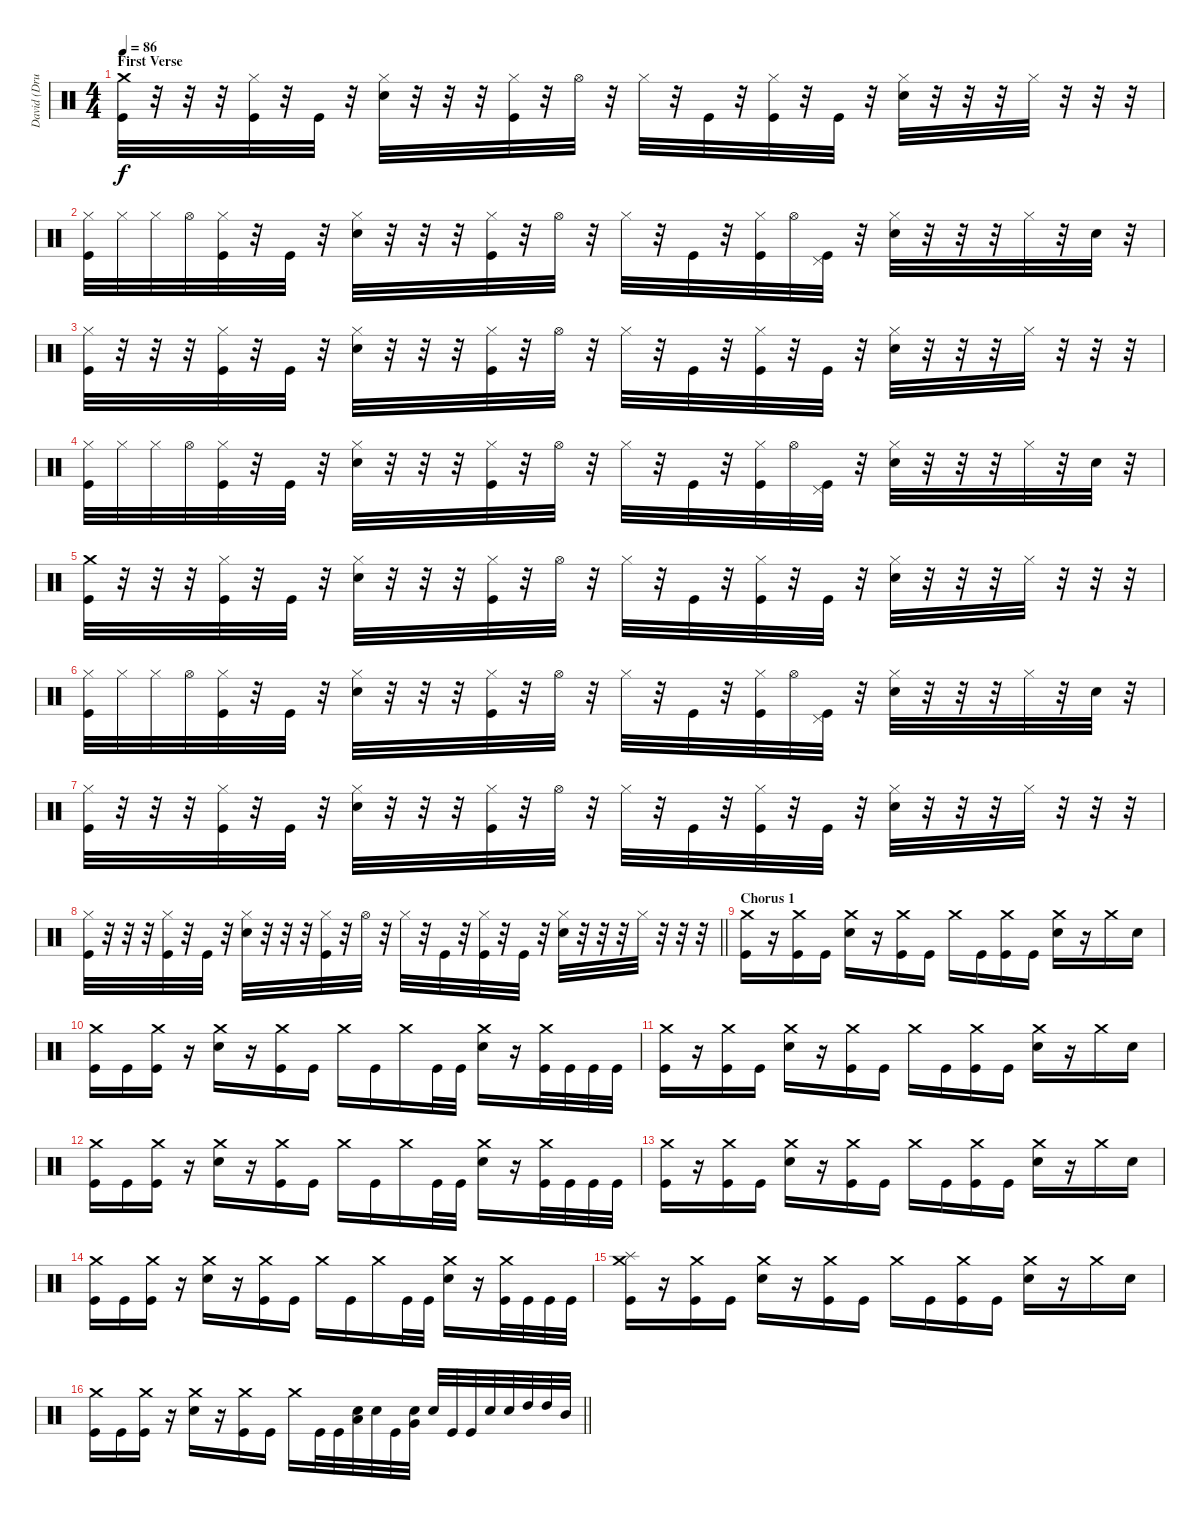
\track ("David (Drums)" "David (Dru") {instrument percussion}
\staff {score}
\articulation defaults
\ts (4 4)
\section ("" "First Verse")
\tempo 86
\clef neutral
\ks c
("Crash medium (hit)" "Kick (hit)").32{dy f} r.32 r.32 r.32 ("Hi-Hat (closed)" "Kick (hit)").32 r.32 "Kick (hit)".32 r.32 ("Hi-Hat (closed)" "Electric Snare (hit)").32 r.32 r.32 r.32 ("Hi-Hat (closed)" "Kick (hit)").32 r.32 "Hi-Hat (open)".32 r.32 "Hi-Hat (closed)".32 r.32 "Kick (hit)".32 r.32 ("Hi-Hat (closed)" "Kick (hit)").32 r.32 "Kick (hit)".32 r.32 ("Hi-Hat (closed)" "Electric Snare (hit)").32 r.32 r.32 r.32 "Hi-Hat (closed)".32 r.32 r.32 r.32 |
("Hi-Hat (closed)" "Kick (hit)").32 "Hi-Hat (closed)".32 "Hi-Hat (closed)".32 "Hi-Hat (open)".32 ("Hi-Hat (closed)" "Kick (hit)").32 r.32 "Kick (hit)".32 r.32 ("Hi-Hat (closed)" "Electric Snare (hit)").32 r.32 r.32 r.32 ("Hi-Hat (closed)" "Kick (hit)").32 r.32 "Hi-Hat (open)".32 r.32 "Hi-Hat (closed)".32 r.32 "Kick (hit)".32 r.32 ("Hi-Hat (closed)" "Kick (hit)").32 "Hi-Hat (open)".32 ("Pedal Hi-Hat (hit)" "Kick (hit)").32 r.32 ("Hi-Hat (closed)" "Electric Snare (hit)").32 r.32 r.32 r.32 "Hi-Hat (closed)".32 r.32 "Electric Snare (hit)".32 r.32 |
("Hi-Hat (closed)" "Kick (hit)").32 r.32 r.32 r.32 ("Hi-Hat (closed)" "Kick (hit)").32 r.32 "Kick (hit)".32 r.32 ("Hi-Hat (closed)" "Electric Snare (hit)").32 r.32 r.32 r.32 ("Hi-Hat (closed)" "Kick (hit)").32 r.32 "Hi-Hat (open)".32 r.32 "Hi-Hat (closed)".32 r.32 "Kick (hit)".32 r.32 ("Hi-Hat (closed)" "Kick (hit)").32 r.32 "Kick (hit)".32 r.32 ("Hi-Hat (closed)" "Electric Snare (hit)").32 r.32 r.32 r.32 "Hi-Hat (closed)".32 r.32 r.32 r.32 |
("Hi-Hat (closed)" "Kick (hit)").32 "Hi-Hat (closed)".32 "Hi-Hat (closed)".32 "Hi-Hat (open)".32 ("Hi-Hat (closed)" "Kick (hit)").32 r.32 "Kick (hit)".32 r.32 ("Hi-Hat (closed)" "Electric Snare (hit)").32 r.32 r.32 r.32 ("Hi-Hat (closed)" "Kick (hit)").32 r.32 "Hi-Hat (open)".32 r.32 "Hi-Hat (closed)".32 r.32 "Kick (hit)".32 r.32 ("Hi-Hat (closed)" "Kick (hit)").32 "Hi-Hat (open)".32 ("Pedal Hi-Hat (hit)" "Kick (hit)").32 r.32 ("Hi-Hat (closed)" "Electric Snare (hit)").32 r.32 r.32 r.32 "Hi-Hat (closed)".32 r.32 "Electric Snare (hit)".32 r.32 |
("Crash medium (hit)" "Kick (hit)").32 r.32 r.32 r.32 ("Hi-Hat (closed)" "Kick (hit)").32 r.32 "Kick (hit)".32 r.32 ("Hi-Hat (closed)" "Electric Snare (hit)").32 r.32 r.32 r.32 ("Hi-Hat (closed)" "Kick (hit)").32 r.32 "Hi-Hat (open)".32 r.32 "Hi-Hat (closed)".32 r.32 "Kick (hit)".32 r.32 ("Hi-Hat (closed)" "Kick (hit)").32 r.32 "Kick (hit)".32 r.32 ("Hi-Hat (closed)" "Electric Snare (hit)").32 r.32 r.32 r.32 "Hi-Hat (closed)".32 r.32 r.32 r.32 |
("Hi-Hat (closed)" "Kick (hit)").32 "Hi-Hat (closed)".32 "Hi-Hat (closed)".32 "Hi-Hat (open)".32 ("Hi-Hat (closed)" "Kick (hit)").32 r.32 "Kick (hit)".32 r.32 ("Hi-Hat (closed)" "Electric Snare (hit)").32 r.32 r.32 r.32 ("Hi-Hat (closed)" "Kick (hit)").32 r.32 "Hi-Hat (open)".32 r.32 "Hi-Hat (closed)".32 r.32 "Kick (hit)".32 r.32 ("Hi-Hat (closed)" "Kick (hit)").32 "Hi-Hat (open)".32 ("Pedal Hi-Hat (hit)" "Kick (hit)").32 r.32 ("Hi-Hat (closed)" "Electric Snare (hit)").32 r.32 r.32 r.32 "Hi-Hat (closed)".32 r.32 "Electric Snare (hit)".32 r.32 |
("Hi-Hat (closed)" "Kick (hit)").32 r.32 r.32 r.32 ("Hi-Hat (closed)" "Kick (hit)").32 r.32 "Kick (hit)".32 r.32 ("Hi-Hat (closed)" "Electric Snare (hit)").32 r.32 r.32 r.32 ("Hi-Hat (closed)" "Kick (hit)").32 r.32 "Hi-Hat (open)".32 r.32 "Hi-Hat (closed)".32 r.32 "Kick (hit)".32 r.32 ("Hi-Hat (closed)" "Kick (hit)").32 r.32 "Kick (hit)".32 r.32 ("Hi-Hat (closed)" "Electric Snare (hit)").32 r.32 r.32 r.32 "Hi-Hat (closed)".32 r.32 r.32 r.32 |
\barLineRight lightlight
("Hi-Hat (closed)" "Kick (hit)").32 r.32 r.32 r.32 ("Hi-Hat (closed)" "Kick (hit)").32 r.32 "Kick (hit)".32 r.32 ("Hi-Hat (closed)" "Electric Snare (hit)").32 r.32 r.32 r.32 ("Hi-Hat (closed)" "Kick (hit)").32 r.32 "Hi-Hat (open)".32 r.32 "Hi-Hat (closed)".32 r.32 "Kick (hit)".32 r.32 ("Hi-Hat (closed)" "Kick (hit)").32 r.32 "Kick (hit)".32 r.32 ("Hi-Hat (closed)" "Electric Snare (hit)").32 r.32 r.32 r.32 "Hi-Hat (closed)".32 r.32 r.32 r.32 |
\section ("" "Chorus 1")
("Crash medium (hit)" "Kick (hit)").16 r.16 ("Crash medium (hit)" "Kick (hit)").16 "Kick (hit)".16 ("Crash medium (hit)" "Electric Snare (hit)").16 r.16 ("Crash medium (hit)" "Kick (hit)").16 "Kick (hit)".16 "Crash medium (hit)".16 "Kick (hit)".16 ("Crash medium (hit)" "Kick (hit)").16 "Kick (hit)".16 ("Crash medium (hit)" "Electric Snare (hit)").16 r.16 "Crash medium (hit)".16 "Electric Snare (hit)".16 |
("Crash medium (hit)" "Kick (hit)").16 "Kick (hit)".16 ("Crash medium (hit)" "Kick (hit)").16 r.16 ("Crash medium (hit)" "Electric Snare (hit)").16 r.16 ("Crash medium (hit)" "Kick (hit)").16 "Kick (hit)".16 "Crash medium (hit)".16 "Kick (hit)".16 "Crash medium (hit)".16 "Kick (hit)".32 "Kick (hit)".32 ("Crash medium (hit)" "Electric Snare (hit)").16 r.16 ("Crash medium (hit)" "Kick (hit)").32 "Kick (hit)".32 "Kick (hit)".32 "Kick (hit)".32 |
("Crash medium (hit)" "Kick (hit)").16 r.16 ("Crash medium (hit)" "Kick (hit)").16 "Kick (hit)".16 ("Crash medium (hit)" "Electric Snare (hit)").16 r.16 ("Crash medium (hit)" "Kick (hit)").16 "Kick (hit)".16 "Crash medium (hit)".16 "Kick (hit)".16 ("Crash medium (hit)" "Kick (hit)").16 "Kick (hit)".16 ("Crash medium (hit)" "Electric Snare (hit)").16 r.16 "Crash medium (hit)".16 "Electric Snare (hit)".16 |
("Crash medium (hit)" "Kick (hit)").16 "Kick (hit)".16 ("Crash medium (hit)" "Kick (hit)").16 r.16 ("Crash medium (hit)" "Electric Snare (hit)").16 r.16 ("Crash medium (hit)" "Kick (hit)").16 "Kick (hit)".16 "Crash medium (hit)".16 "Kick (hit)".16 "Crash medium (hit)".16 "Kick (hit)".32 "Kick (hit)".32 ("Crash medium (hit)" "Electric Snare (hit)").16 r.16 ("Crash medium (hit)" "Kick (hit)").32 "Kick (hit)".32 "Kick (hit)".32 "Kick (hit)".32 |
("Crash medium (hit)" "Kick (hit)").16 r.16 ("Crash medium (hit)" "Kick (hit)").16 "Kick (hit)".16 ("Crash medium (hit)" "Electric Snare (hit)").16 r.16 ("Crash medium (hit)" "Kick (hit)").16 "Kick (hit)".16 "Crash medium (hit)".16 "Kick (hit)".16 ("Crash medium (hit)" "Kick (hit)").16 "Kick (hit)".16 ("Crash medium (hit)" "Electric Snare (hit)").16 r.16 "Crash medium (hit)".16 "Electric Snare (hit)".16 |
("Crash medium (hit)" "Kick (hit)").16 "Kick (hit)".16 ("Crash medium (hit)" "Kick (hit)").16 r.16 ("Crash medium (hit)" "Electric Snare (hit)").16 r.16 ("Crash medium (hit)" "Kick (hit)").16 "Kick (hit)".16 "Crash medium (hit)".16 "Kick (hit)".16 "Crash medium (hit)".16 "Kick (hit)".32 "Kick (hit)".32 ("Crash medium (hit)" "Electric Snare (hit)").16 r.16 ("Crash medium (hit)" "Kick (hit)").32 "Kick (hit)".32 "Kick (hit)".32 "Kick (hit)".32 |
("Splash (hit)" "Crash medium (hit)" "Kick (hit)").16 r.16 ("Crash medium (hit)" "Kick (hit)").16 "Kick (hit)".16 ("Crash medium (hit)" "Electric Snare (hit)").16 r.16 ("Crash medium (hit)" "Kick (hit)").16 "Kick (hit)".16 "Crash medium (hit)".16 "Kick (hit)".16 ("Crash medium (hit)" "Kick (hit)").16 "Kick (hit)".16 ("Crash medium (hit)" "Electric Snare (hit)").16 r.16 "Crash medium (hit)".16 "Electric Snare (hit)".16 |
\barLineRight lightlight
("Crash medium (hit)" "Kick (hit)").16 "Kick (hit)".16 ("Crash medium (hit)" "Kick (hit)").16 r.16 ("Crash medium (hit)" "Electric Snare (hit)").16 r.16 ("Crash medium (hit)" "Kick (hit)").16 "Kick (hit)".16 "Crash medium (hit)".16 "Kick (hit)".32 "Kick (hit)".32 ("Low Floor Tom (hit)" "Electric Snare (hit)").32 "Electric Snare (hit)".32 "Kick (hit)".32 ("Very Low Tom (hit)" "Electric Snare (hit)").32 "Electric Snare (hit)".32 "Kick (hit)".32 "Kick (hit)".32 "Electric Snare (hit)".32 "Electric Snare (hit)".32 "High Tom (hit)".32 "High Tom (hit)".32 "Mid Tom (hit)".32
